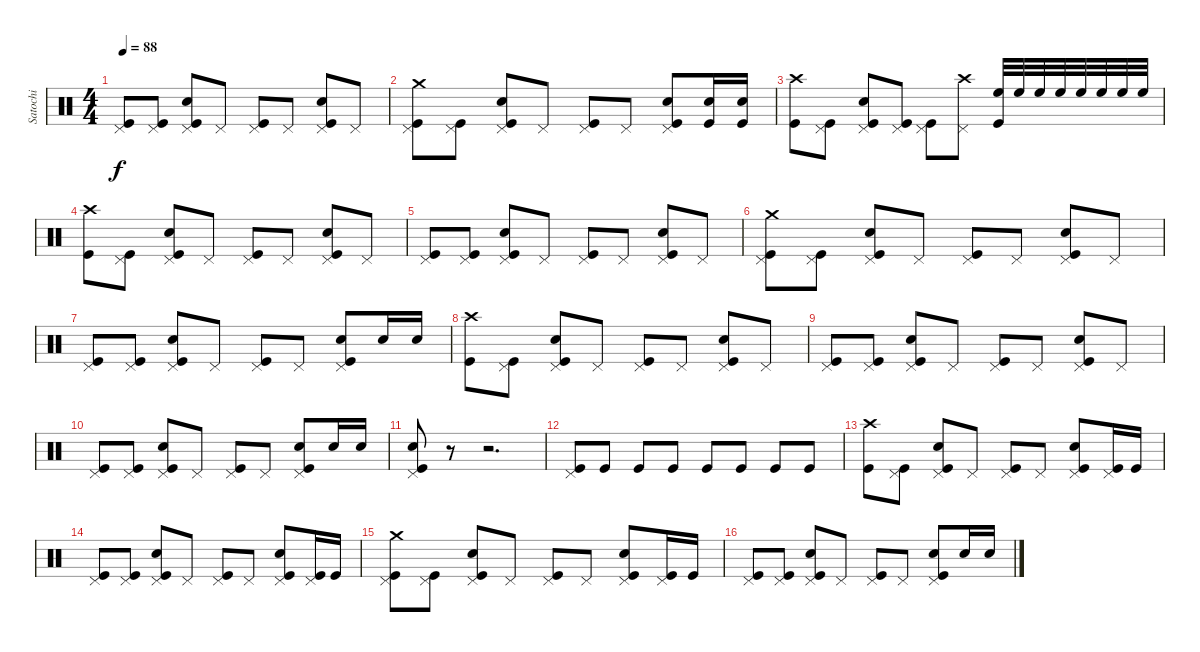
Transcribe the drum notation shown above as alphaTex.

\track ("Satochi" "Satochi") {instrument percussion}
\staff {score}
\articulation defaults
\ts (4 4)
\tempo 88
\clef neutral
\ks c
("Pedal Hi-Hat (hit)" "Kick (hit)").8{dy f} ("Pedal Hi-Hat (hit)" "Kick (hit)").8 ("Pedal Hi-Hat (hit)" "Snare (hit) 2" "Kick (hit)").8 "Pedal Hi-Hat (hit)".8 ("Pedal Hi-Hat (hit)" "Kick (hit)").8 "Pedal Hi-Hat (hit)".8 ("Pedal Hi-Hat (hit)" "Snare (hit) 2" "Kick (hit)").8 "Pedal Hi-Hat (hit)".8 |
("Crash medium (hit)" "Pedal Hi-Hat (hit)" "Kick (hit)").8 ("Pedal Hi-Hat (hit)" "Kick (hit)").8 ("Pedal Hi-Hat (hit)" "Snare (hit) 2" "Kick (hit)").8 "Pedal Hi-Hat (hit)".8 ("Pedal Hi-Hat (hit)" "Kick (hit)").8 "Pedal Hi-Hat (hit)".8 ("Pedal Hi-Hat (hit)" "Snare (hit) 2" "Kick (hit)").8 ("Snare (hit) 2" "Kick (hit)").16 ("Snare (hit) 2" "Kick (hit)").16 |
("Crash high (hit)" "Kick (hit)").8 ("Pedal Hi-Hat (hit)" "Kick (hit)").8 ("Pedal Hi-Hat (hit)" "Snare (hit) 2" "Kick (hit)").8 ("Pedal Hi-Hat (hit)" "Kick (hit)").8 ("Pedal Hi-Hat (hit)" "Kick (hit)").8 ("Crash high (hit)" "Pedal Hi-Hat (hit)").8 ("High Floor Tom (hit)" "Kick (hit)").32 "High Floor Tom (hit)".32 "High Floor Tom (hit)".32 "High Floor Tom (hit)".32 "High Floor Tom (hit)".32 "High Floor Tom (hit)".32 "High Floor Tom (hit)".32 "High Floor Tom (hit)".32 |
("Crash high (hit)" "Kick (hit)").8 ("Pedal Hi-Hat (hit)" "Kick (hit)").8 ("Pedal Hi-Hat (hit)" "Snare (hit) 2" "Kick (hit)").8 "Pedal Hi-Hat (hit)".8 ("Pedal Hi-Hat (hit)" "Kick (hit)").8 "Pedal Hi-Hat (hit)".8 ("Pedal Hi-Hat (hit)" "Snare (hit) 2" "Kick (hit)").8 "Pedal Hi-Hat (hit)".8 |
("Pedal Hi-Hat (hit)" "Kick (hit)").8 ("Pedal Hi-Hat (hit)" "Kick (hit)").8 ("Pedal Hi-Hat (hit)" "Snare (hit) 2" "Kick (hit)").8 "Pedal Hi-Hat (hit)".8 ("Pedal Hi-Hat (hit)" "Kick (hit)").8 "Pedal Hi-Hat (hit)".8 ("Pedal Hi-Hat (hit)" "Snare (hit) 2" "Kick (hit)").8 "Pedal Hi-Hat (hit)".8 |
("Crash medium (hit)" "Pedal Hi-Hat (hit)" "Kick (hit)").8 ("Pedal Hi-Hat (hit)" "Kick (hit)").8 ("Pedal Hi-Hat (hit)" "Snare (hit) 2" "Kick (hit)").8 "Pedal Hi-Hat (hit)".8 ("Pedal Hi-Hat (hit)" "Kick (hit)").8 "Pedal Hi-Hat (hit)".8 ("Pedal Hi-Hat (hit)" "Snare (hit) 2" "Kick (hit)").8 "Pedal Hi-Hat (hit)".8 |
("Pedal Hi-Hat (hit)" "Kick (hit)").8 ("Pedal Hi-Hat (hit)" "Kick (hit)").8 ("Pedal Hi-Hat (hit)" "Snare (hit) 2" "Kick (hit)").8 "Pedal Hi-Hat (hit)".8 ("Pedal Hi-Hat (hit)" "Kick (hit)").8 "Pedal Hi-Hat (hit)".8 ("Pedal Hi-Hat (hit)" "Snare (hit) 2" "Kick (hit)").8 "Snare (hit) 2".16 "Snare (hit) 2".16 |
("Crash high (hit)" "Kick (hit)").8 ("Pedal Hi-Hat (hit)" "Kick (hit)").8 ("Pedal Hi-Hat (hit)" "Snare (hit) 2" "Kick (hit)").8 "Pedal Hi-Hat (hit)".8 ("Pedal Hi-Hat (hit)" "Kick (hit)").8 "Pedal Hi-Hat (hit)".8 ("Pedal Hi-Hat (hit)" "Snare (hit) 2" "Kick (hit)").8 "Pedal Hi-Hat (hit)".8 |
("Pedal Hi-Hat (hit)" "Kick (hit)").8 ("Pedal Hi-Hat (hit)" "Kick (hit)").8 ("Pedal Hi-Hat (hit)" "Snare (hit) 2" "Kick (hit)").8 "Pedal Hi-Hat (hit)".8 ("Pedal Hi-Hat (hit)" "Kick (hit)").8 "Pedal Hi-Hat (hit)".8 ("Pedal Hi-Hat (hit)" "Snare (hit) 2" "Kick (hit)").8 "Pedal Hi-Hat (hit)".8 |
("Pedal Hi-Hat (hit)" "Kick (hit)").8 ("Pedal Hi-Hat (hit)" "Kick (hit)").8 ("Pedal Hi-Hat (hit)" "Snare (hit) 2" "Kick (hit)").8 "Pedal Hi-Hat (hit)".8 ("Pedal Hi-Hat (hit)" "Kick (hit)").8 "Pedal Hi-Hat (hit)".8 ("Pedal Hi-Hat (hit)" "Snare (hit) 2" "Kick (hit)").8 "Snare (hit) 2".16 "Snare (hit) 2".16 |
("Pedal Hi-Hat (hit)" "Snare (hit) 2" "Kick (hit)").8 r.8 r.2{d} |
("Pedal Hi-Hat (hit)" "Kick (hit)").8 "Kick (hit)".8 "Kick (hit)".8 "Kick (hit)".8 "Kick (hit)".8 "Kick (hit)".8 "Kick (hit)".8 "Kick (hit)".8 |
("Crash high (hit)" "Kick (hit)").8 ("Pedal Hi-Hat (hit)" "Kick (hit)").8 ("Pedal Hi-Hat (hit)" "Snare (hit) 2" "Kick (hit)").8 "Pedal Hi-Hat (hit)".8 ("Pedal Hi-Hat (hit)" "Kick (hit)").8 "Pedal Hi-Hat (hit)".8 ("Pedal Hi-Hat (hit)" "Snare (hit) 2" "Kick (hit)").8 ("Pedal Hi-Hat (hit)" "Kick (hit)").16 "Kick (hit)".16 |
("Pedal Hi-Hat (hit)" "Kick (hit)").8 ("Pedal Hi-Hat (hit)" "Kick (hit)").8 ("Pedal Hi-Hat (hit)" "Snare (hit) 2" "Kick (hit)").8 "Pedal Hi-Hat (hit)".8 ("Pedal Hi-Hat (hit)" "Kick (hit)").8 "Pedal Hi-Hat (hit)".8 ("Pedal Hi-Hat (hit)" "Snare (hit) 2" "Kick (hit)").8 ("Pedal Hi-Hat (hit)" "Kick (hit)").16 "Kick (hit)".16 |
("Crash medium (hit)" "Pedal Hi-Hat (hit)" "Kick (hit)").8 ("Pedal Hi-Hat (hit)" "Kick (hit)").8 ("Pedal Hi-Hat (hit)" "Snare (hit) 2" "Kick (hit)").8 "Pedal Hi-Hat (hit)".8 ("Pedal Hi-Hat (hit)" "Kick (hit)").8 "Pedal Hi-Hat (hit)".8 ("Pedal Hi-Hat (hit)" "Snare (hit) 2" "Kick (hit)").8 ("Pedal Hi-Hat (hit)" "Kick (hit)").16 "Kick (hit)".16 |
("Pedal Hi-Hat (hit)" "Kick (hit)").8 ("Pedal Hi-Hat (hit)" "Kick (hit)").8 ("Pedal Hi-Hat (hit)" "Snare (hit) 2" "Kick (hit)").8 "Pedal Hi-Hat (hit)".8 ("Pedal Hi-Hat (hit)" "Kick (hit)").8 "Pedal Hi-Hat (hit)".8 ("Pedal Hi-Hat (hit)" "Snare (hit) 2" "Kick (hit)").8 "Snare (hit) 2".16 "Snare (hit) 2".16
